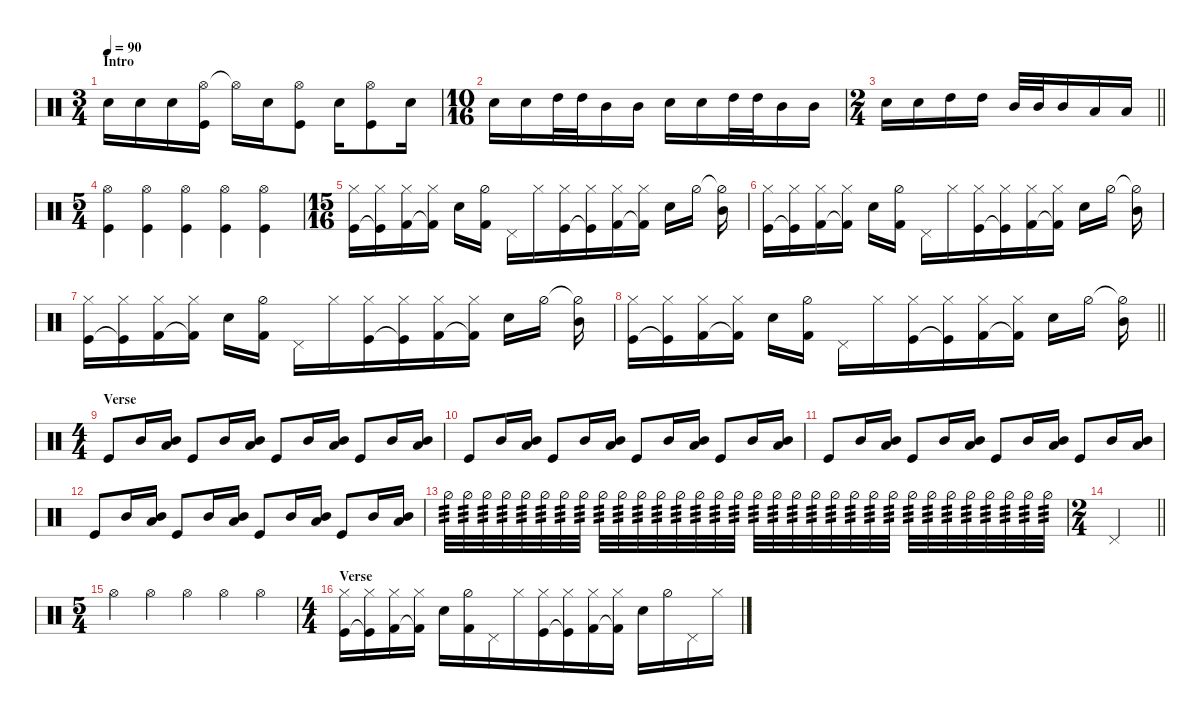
\defaultSystemsLayout 4
\hideDynamics
\bracketExtendMode nobrackets
\singleTrackTrackNamePolicy hidden
\multiTrackTrackNamePolicy hidden
\otherSystemsTrackNameOrientation horizontal
\track ("Drumkit" "drm.") {instrument percussion}
\staff {score}
\articulation defaults
\ts (3 4)
\beaming (8 2 2 2)
\section ("" "Intro")
\tempo 90
\clef neutral
\ks c "Snare (hit) 2".16{dy mf beam Down} "Snare (hit) 2".16{beam Down} "Snare (hit) 2".16{beam Down}
("Hi-Hat (open)" "Kick (hit)").16{beam Down} "Hi-Hat (open)"{t}.16{beam Down} "Snare (hit) 2".16{beam Down} ("Hi-Hat (open)" "Kick (hit)").8{beam Down} "Snare (hit) 2".16{beam Down} ("Hi-Hat (open)" "Kick (hit)").8{beam Down} "Snare (hit) 2".16{beam Down} |
\ts (10 16)
\beaming (8 2 2 1)
"Snare (hit) 2".16{beam Down beam merge} "Snare (hit) 2".16{beam Down beam merge} "High Tom (hit)".32{beam Down beam merge} "High Tom (hit)".32{beam Down} "Mid Tom (hit)".16{beam Down beam merge} "Mid Tom (hit)".16{beam Down beam split} "Snare (hit) 2".16{beam Down beam merge} "Snare (hit) 2".16{beam Down beam merge} "High Tom (hit)".32{beam Down beam merge} "High Tom (hit)".32{beam Down beam merge} "Mid Tom (hit)".16{beam Down beam merge} "Mid Tom (hit)".16{beam Down} |
\ts (2 4)
\beaming (8 2 2)
\barLineRight lightlight "Snare (hit) 2".16{dy f beam Down} "Snare (hit) 2".16{beam Down} "High Tom (hit)".16{beam Down} "High Tom (hit)".16{beam Down} "Mid Tom (hit)".32{beam Up} "Mid Tom (hit)".32{beam Up} "Mid Tom (hit)".16{beam Up} "Low Tom (hit)".16{beam Up} "Low Tom (hit)".16{beam Up}
|
\ts (5 4)
\beaming (8 6 4)
("Hi-Hat (open)" "Kick (hit)").4{beam Down} ("Hi-Hat (open)" "Kick (hit)").4{beam Down} ("Hi-Hat (open)" "Kick (hit)").4{beam Down} ("Hi-Hat (open)" "Kick (hit)").4{beam Down} ("Hi-Hat (open)" "Kick (hit)").4{beam Down} |
\ts (15 16)
\beaming (8 3 3 1)
("Kick (hit)" "Hi-Hat (closed)").16{beam Down} ("Kick (hit)"{t} "Hi-Hat (closed)").16{beam Down} ("Kick (hit) 2" "Hi-Hat (closed)").16{beam Down} ("Kick (hit) 2"{t} "Hi-Hat (closed)").16{beam Down beam split} "Snare (hit) 2".16{beam Down} ("Kick (hit) 2" "Hi-Hat (half)").16{beam Down} "Pedal Hi-Hat (hit)".16{beam Down beam merge} "Hi-Hat (closed)".16{beam Down beam merge} ("Kick (hit)" "Hi-Hat (closed)").16{beam Down beam merge} ("Kick (hit)"{t} "Hi-Hat (closed)").16{beam Down} ("Kick (hit) 2" "Hi-Hat (closed)").16{beam Down} ("Kick (hit) 2"{t} "Hi-Hat (closed)").16{beam Down} "Snare (hit) 2".16{beam Down} "Hi-Hat (half)".16{beam Down} ("Hi-Hat (half)"{t} "Mid Tom (hit)").16{beam Down beam merge} |
("Kick (hit)" "Hi-Hat (closed)").16{beam Down} ("Kick (hit)"{t} "Hi-Hat (closed)").16{beam Down} ("Kick (hit) 2" "Hi-Hat (closed)").16{beam Down} ("Kick (hit) 2"{t} "Hi-Hat (closed)").16{beam Down beam split} "Snare (hit) 2".16{beam Down} ("Kick (hit) 2" "Hi-Hat (half)").16{beam Down} "Pedal Hi-Hat (hit)".16{beam Down beam merge} "Hi-Hat (closed)".16{beam Down beam merge} ("Kick (hit)" "Hi-Hat (closed)").16{beam Down beam merge} ("Kick (hit)"{t} "Hi-Hat (closed)").16{beam Down} ("Kick (hit) 2" "Hi-Hat (closed)").16{beam Down} ("Kick (hit) 2"{t} "Hi-Hat (closed)").16{beam Down} "Snare (hit) 2".16{beam Down} "Hi-Hat (half)".16{beam Down} ("Hi-Hat (half)"{t} "Mid Tom (hit)").16{beam Down beam merge} |
("Kick (hit)" "Hi-Hat (closed)").16{beam Down} ("Kick (hit)"{t} "Hi-Hat (closed)").16{beam Down} ("Kick (hit) 2" "Hi-Hat (closed)").16{beam Down} ("Kick (hit) 2"{t} "Hi-Hat (closed)").16{beam Down beam split} "Snare (hit) 2".16{beam Down} ("Kick (hit) 2" "Hi-Hat (half)").16{beam Down} "Pedal Hi-Hat (hit)".16{beam Down beam merge} "Hi-Hat (closed)".16{beam Down beam merge} ("Kick (hit)" "Hi-Hat (closed)").16{beam Down beam merge} ("Kick (hit)"{t} "Hi-Hat (closed)").16{beam Down} ("Kick (hit) 2" "Hi-Hat (closed)").16{beam Down} ("Kick (hit) 2"{t} "Hi-Hat (closed)").16{beam Down} "Snare (hit) 2".16{beam Down} "Hi-Hat (half)".16{beam Down} ("Hi-Hat (half)"{t} "Mid Tom (hit)").16{beam Down beam merge} |
\barLineRight lightlight
("Kick (hit)" "Hi-Hat (closed)").16{beam Down} ("Kick (hit)"{t} "Hi-Hat (closed)").16{beam Down} ("Kick (hit) 2" "Hi-Hat (closed)").16{beam Down} ("Kick (hit) 2"{t} "Hi-Hat (closed)").16{beam Down beam split} "Snare (hit) 2".16{beam Down} ("Kick (hit) 2" "Hi-Hat (half)").16{beam Down} "Pedal Hi-Hat (hit)".16{beam Down beam merge} "Hi-Hat (closed)".16{beam Down beam merge} ("Kick (hit)" "Hi-Hat (closed)").16{beam Down beam merge} ("Kick (hit)"{t} "Hi-Hat (closed)").16{beam Down} ("Kick (hit) 2" "Hi-Hat (closed)").16{beam Down} ("Kick (hit) 2"{t} "Hi-Hat (closed)").16{beam Down} "Snare (hit) 2".16{beam Down} "Hi-Hat (half)".16{beam Down} ("Hi-Hat (half)"{t} "Mid Tom (hit)").16{beam Down beam merge} |
\ts (4 4)
\beaming (8 2 2 2 2)
\section ("" "Verse    ")
"Kick (hit)".8{beam Up} "Mid Tom (hit)".16{beam Up} ("Mid Tom (hit)" "Low Tom (hit)").16{beam Up} "Kick (hit)".8{beam Up} "Mid Tom (hit)".16{beam Up} ("Mid Tom (hit)" "Low Tom (hit)").16{beam Up} "Kick (hit)".8{beam Up} "Mid Tom (hit)".16{beam Up} ("Mid Tom (hit)" "Low Tom (hit)").16{beam Up} "Kick (hit)".8{beam Up} "Mid Tom (hit)".16{beam Up} ("Mid Tom (hit)" "Low Tom (hit)").16{beam Up} |
"Kick (hit)".8{beam Up} "Mid Tom (hit)".16{beam Up} ("Mid Tom (hit)" "Low Tom (hit)").16{beam Up} "Kick (hit)".8{beam Up} "Mid Tom (hit)".16{beam Up} ("Mid Tom (hit)" "Low Tom (hit)").16{beam Up} "Kick (hit)".8{beam Up} "Mid Tom (hit)".16{beam Up} ("Mid Tom (hit)" "Low Tom (hit)").16{beam Up} "Kick (hit)".8{beam Up} "Mid Tom (hit)".16{beam Up} ("Mid Tom (hit)" "Low Tom (hit)").16{beam Up} |
"Kick (hit)".8{beam Up} "Mid Tom (hit)".16{beam Up} ("Mid Tom (hit)" "Low Tom (hit)").16{beam Up} "Kick (hit)".8{beam Up} "Mid Tom (hit)".16{beam Up} ("Mid Tom (hit)" "Low Tom (hit)").16{beam Up} "Kick (hit)".8{beam Up} "Mid Tom (hit)".16{beam Up} ("Mid Tom (hit)" "Low Tom (hit)").16{beam Up} "Kick (hit)".8{beam Up} "Mid Tom (hit)".16{beam Up} ("Mid Tom (hit)" "Low Tom (hit)").16{beam Up} |
"Kick (hit)".8{beam Up} "Mid Tom (hit)".16{beam Up} ("Mid Tom (hit)" "Low Tom (hit)").16{beam Up} "Kick (hit)".8{beam Up} "Mid Tom (hit)".16{beam Up} ("Mid Tom (hit)" "Low Tom (hit)").16{beam Up} "Kick (hit)".8{beam Up} "Mid Tom (hit)".16{beam Up} ("Mid Tom (hit)" "Low Tom (hit)").16{beam Up} "Kick (hit)".8{beam Up} "Mid Tom (hit)".16{beam Up} ("Mid Tom (hit)" "Low Tom (hit)").16{beam Up} |
"Hi-Hat (half)".32{tp 3 dy p beam Down} "Hi-Hat (half)".32{tp 3 beam Down} "Hi-Hat (half)".32{tp 3 beam Down} "Hi-Hat (half)".32{tp 3 beam Down} "Hi-Hat (half)".32{tp 3 beam Down} "Hi-Hat (half)".32{tp 3 beam Down} "Hi-Hat (half)".32{tp 3 beam Down} "Hi-Hat (half)".32{tp 3 beam Down} "Hi-Hat (half)".32{tp 3 beam Down} "Hi-Hat (half)".32{tp 3 beam Down} "Hi-Hat (half)".32{tp 3 beam Down} "Hi-Hat (half)".32{tp 3 beam Down} "Hi-Hat (half)".32{tp 3 beam Down} "Hi-Hat (half)".32{tp 3 beam Down} "Hi-Hat (half)".32{tp 3 beam Down} "Hi-Hat (half)".32{tp 3 beam Down} "Hi-Hat (half)".32{tp 3 beam Down} "Hi-Hat (half)".32{tp 3 beam Down} "Hi-Hat (half)".32{tp 3 beam Down} "Hi-Hat (half)".32{tp 3 beam Down} "Hi-Hat (half)".32{tp 3 beam Down} "Hi-Hat (half)".32{tp 3 beam Down} "Hi-Hat (half)".32{tp 3 beam Down} "Hi-Hat (half)".32{tp 3 beam Down} "Hi-Hat (half)".32{tp 3 beam Down} "Hi-Hat (half)".32{tp 3 beam Down} "Hi-Hat (half)".32{tp 3 beam Down} "Hi-Hat (half)".32{tp 3 beam Down} "Hi-Hat (half)".32{tp 3 beam Down} "Hi-Hat (half)".32{tp 3 beam Down} "Hi-Hat (half)".32{tp 3 beam Down} "Hi-Hat (half)".32{tp 3 beam Down} |
\ts (2 4)
\beaming (8 2 2)
\barLineRight lightlight "Pedal Hi-Hat (hit)".2{dy f beam Up}
|
\ts (5 4)
\beaming (8 6 4)
"Hi-Hat (open)".4{beam Down} "Hi-Hat (open)".4{beam Down} "Hi-Hat (open)".4{beam Down} "Hi-Hat (open)".4{beam Down} "Hi-Hat (open)".4{beam Down} |
\ts (4 4)
\beaming (8 2 2 2 2)
\section ("" "Verse")
("Kick (hit)" "Hi-Hat (closed)").16{beam Down} ("Kick (hit)"{t} "Hi-Hat (closed)").16{beam Down} ("Kick (hit) 2" "Hi-Hat (closed)").16{beam Down} ("Kick (hit) 2"{t} "Hi-Hat (closed)").16{beam Down beam split} "Snare (hit) 2".16{beam Down} ("Kick (hit) 2" "Hi-Hat (half)").16{beam Down} "Pedal Hi-Hat (hit)".16{beam Down beam merge} "Hi-Hat (closed)".16{beam Down beam merge} ("Kick (hit)" "Hi-Hat (closed)").16{beam Down beam merge} ("Kick (hit)"{t} "Hi-Hat (closed)").16{beam Down} ("Kick (hit) 2" "Hi-Hat (closed)").16{beam Down} ("Kick (hit) 2"{t} "Hi-Hat (closed)").16{beam Down} "Snare (hit) 2".16{beam Down} "Hi-Hat (half)".16{beam Down} "Pedal Hi-Hat (hit)".16{beam Down beam merge} "Hi-Hat (closed)".16{beam Down}
